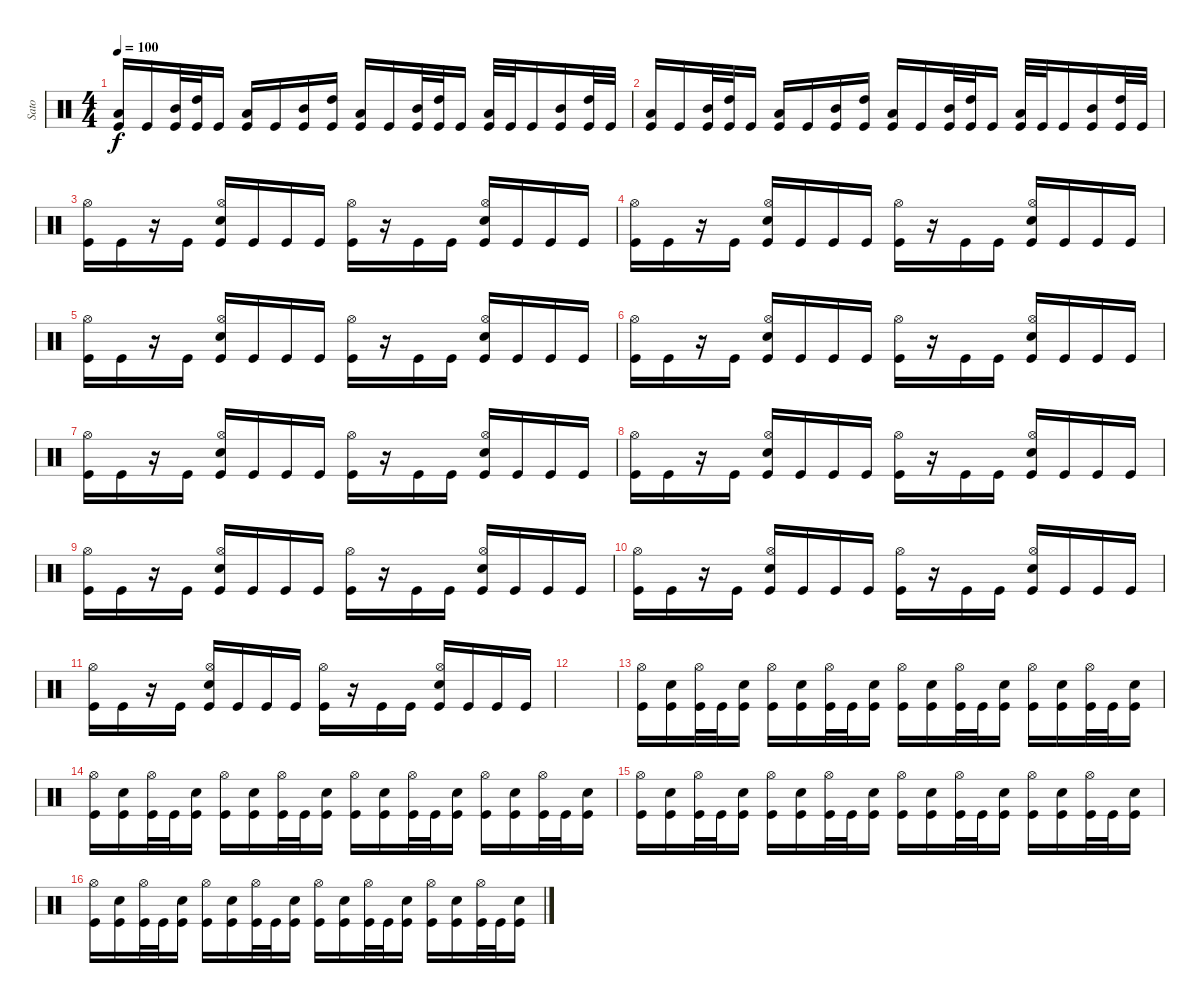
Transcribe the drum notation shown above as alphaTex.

\track ("Sato" "Sato") {instrument percussion}
\staff {score}
\articulation defaults
\ts (4 4)
\tempo 100
\clef neutral
\ks c
("Low Tom (hit)" "Kick (hit)").16{dy f} "Kick (hit)".16 ("Mid Tom (hit)" "Kick (hit)").32 ("High Tom (hit)" "Kick (hit)").32 "Kick (hit)".16 ("Low Tom (hit)" "Kick (hit)").16 "Kick (hit)".16 ("Mid Tom (hit)" "Kick (hit)").16 ("High Tom (hit)" "Kick (hit)").16 ("Low Tom (hit)" "Kick (hit)").16 "Kick (hit)".16 ("Mid Tom (hit)" "Kick (hit)").32 ("High Tom (hit)" "Kick (hit)").32 "Kick (hit)".16 ("Low Tom (hit)" "Kick (hit)").32 "Kick (hit)".32 "Kick (hit)".16 ("Mid Tom (hit)" "Kick (hit)").16 ("High Tom (hit)" "Kick (hit)").32 "Kick (hit)".32 |
("Low Tom (hit)" "Kick (hit)").16 "Kick (hit)".16 ("Mid Tom (hit)" "Kick (hit)").32 ("High Tom (hit)" "Kick (hit)").32 "Kick (hit)".16 ("Low Tom (hit)" "Kick (hit)").16 "Kick (hit)".16 ("Mid Tom (hit)" "Kick (hit)").16 ("High Tom (hit)" "Kick (hit)").16 ("Low Tom (hit)" "Kick (hit)").16 "Kick (hit)".16 ("Mid Tom (hit)" "Kick (hit)").32 ("High Tom (hit)" "Kick (hit)").32 "Kick (hit)".16 ("Low Tom (hit)" "Kick (hit)").32 "Kick (hit)".32 "Kick (hit)".16 ("Mid Tom (hit)" "Kick (hit)").16 ("High Tom (hit)" "Kick (hit)").32 "Kick (hit)".32 |
("Hi-Hat (open)" "Kick (hit)").16 "Kick (hit)".16 r.16 "Kick (hit)".16 ("Hi-Hat (open)" "Electric Snare (hit)" "Kick (hit)").16 "Kick (hit)".16 "Kick (hit)".16 "Kick (hit)".16 ("Hi-Hat (open)" "Kick (hit)").16 r.16 "Kick (hit)".16 "Kick (hit)".16 ("Hi-Hat (open)" "Electric Snare (hit)" "Kick (hit)").16 "Kick (hit)".16 "Kick (hit)".16 "Kick (hit)".16 |
("Hi-Hat (open)" "Kick (hit)").16 "Kick (hit)".16 r.16 "Kick (hit)".16 ("Hi-Hat (open)" "Electric Snare (hit)" "Kick (hit)").16 "Kick (hit)".16 "Kick (hit)".16 "Kick (hit)".16 ("Hi-Hat (open)" "Kick (hit)").16 r.16 "Kick (hit)".16 "Kick (hit)".16 ("Hi-Hat (open)" "Electric Snare (hit)" "Kick (hit)").16 "Kick (hit)".16 "Kick (hit)".16 "Kick (hit)".16 |
("Hi-Hat (open)" "Kick (hit)").16 "Kick (hit)".16 r.16 "Kick (hit)".16 ("Hi-Hat (open)" "Electric Snare (hit)" "Kick (hit)").16 "Kick (hit)".16 "Kick (hit)".16 "Kick (hit)".16 ("Hi-Hat (open)" "Kick (hit)").16 r.16 "Kick (hit)".16 "Kick (hit)".16 ("Hi-Hat (open)" "Electric Snare (hit)" "Kick (hit)").16 "Kick (hit)".16 "Kick (hit)".16 "Kick (hit)".16 |
("Hi-Hat (open)" "Kick (hit)").16 "Kick (hit)".16 r.16 "Kick (hit)".16 ("Hi-Hat (open)" "Electric Snare (hit)" "Kick (hit)").16 "Kick (hit)".16 "Kick (hit)".16 "Kick (hit)".16 ("Hi-Hat (open)" "Kick (hit)").16 r.16 "Kick (hit)".16 "Kick (hit)".16 ("Hi-Hat (open)" "Electric Snare (hit)" "Kick (hit)").16 "Kick (hit)".16 "Kick (hit)".16 "Kick (hit)".16 |
("Hi-Hat (open)" "Kick (hit)").16 "Kick (hit)".16 r.16 "Kick (hit)".16 ("Hi-Hat (open)" "Electric Snare (hit)" "Kick (hit)").16 "Kick (hit)".16 "Kick (hit)".16 "Kick (hit)".16 ("Hi-Hat (open)" "Kick (hit)").16 r.16 "Kick (hit)".16 "Kick (hit)".16 ("Hi-Hat (open)" "Electric Snare (hit)" "Kick (hit)").16 "Kick (hit)".16 "Kick (hit)".16 "Kick (hit)".16 |
("Hi-Hat (open)" "Kick (hit)").16 "Kick (hit)".16 r.16 "Kick (hit)".16 ("Hi-Hat (open)" "Electric Snare (hit)" "Kick (hit)").16 "Kick (hit)".16 "Kick (hit)".16 "Kick (hit)".16 ("Hi-Hat (open)" "Kick (hit)").16 r.16 "Kick (hit)".16 "Kick (hit)".16 ("Hi-Hat (open)" "Electric Snare (hit)" "Kick (hit)").16 "Kick (hit)".16 "Kick (hit)".16 "Kick (hit)".16 |
("Hi-Hat (open)" "Kick (hit)").16 "Kick (hit)".16 r.16 "Kick (hit)".16 ("Hi-Hat (open)" "Electric Snare (hit)" "Kick (hit)").16 "Kick (hit)".16 "Kick (hit)".16 "Kick (hit)".16 ("Hi-Hat (open)" "Kick (hit)").16 r.16 "Kick (hit)".16 "Kick (hit)".16 ("Hi-Hat (open)" "Electric Snare (hit)" "Kick (hit)").16 "Kick (hit)".16 "Kick (hit)".16 "Kick (hit)".16 |
("Hi-Hat (open)" "Kick (hit)").16 "Kick (hit)".16 r.16 "Kick (hit)".16 ("Hi-Hat (open)" "Electric Snare (hit)" "Kick (hit)").16 "Kick (hit)".16 "Kick (hit)".16 "Kick (hit)".16 ("Hi-Hat (open)" "Kick (hit)").16 r.16 "Kick (hit)".16 "Kick (hit)".16 ("Hi-Hat (open)" "Electric Snare (hit)" "Kick (hit)").16 "Kick (hit)".16 "Kick (hit)".16 "Kick (hit)".16 |
("Hi-Hat (open)" "Kick (hit)").16 "Kick (hit)".16 r.16 "Kick (hit)".16 ("Hi-Hat (open)" "Electric Snare (hit)" "Kick (hit)").16 "Kick (hit)".16 "Kick (hit)".16 "Kick (hit)".16 ("Hi-Hat (open)" "Kick (hit)").16 r.16 "Kick (hit)".16 "Kick (hit)".16 ("Hi-Hat (open)" "Electric Snare (hit)" "Kick (hit)").16 "Kick (hit)".16 "Kick (hit)".16 "Kick (hit)".16 |
|
("Hi-Hat (open)" "Kick (hit)").16 ("Electric Snare (hit)" "Kick (hit)").16 ("Hi-Hat (open)" "Kick (hit)").32 "Kick (hit)".32 ("Electric Snare (hit)" "Kick (hit)").16 ("Hi-Hat (open)" "Kick (hit)").16 ("Electric Snare (hit)" "Kick (hit)").16 ("Hi-Hat (open)" "Kick (hit)").32 "Kick (hit)".32 ("Electric Snare (hit)" "Kick (hit)").16 ("Hi-Hat (open)" "Kick (hit)").16 ("Electric Snare (hit)" "Kick (hit)").16 ("Hi-Hat (open)" "Kick (hit)").32 "Kick (hit)".32 ("Electric Snare (hit)" "Kick (hit)").16 ("Hi-Hat (open)" "Kick (hit)").16 ("Electric Snare (hit)" "Kick (hit)").16 ("Hi-Hat (open)" "Kick (hit)").32 "Kick (hit)".32 ("Electric Snare (hit)" "Kick (hit)").16 |
("Hi-Hat (open)" "Kick (hit)").16 ("Electric Snare (hit)" "Kick (hit)").16 ("Hi-Hat (open)" "Kick (hit)").32 "Kick (hit)".32 ("Electric Snare (hit)" "Kick (hit)").16 ("Hi-Hat (open)" "Kick (hit)").16 ("Electric Snare (hit)" "Kick (hit)").16 ("Hi-Hat (open)" "Kick (hit)").32 "Kick (hit)".32 ("Electric Snare (hit)" "Kick (hit)").16 ("Hi-Hat (open)" "Kick (hit)").16 ("Electric Snare (hit)" "Kick (hit)").16 ("Hi-Hat (open)" "Kick (hit)").32 "Kick (hit)".32 ("Electric Snare (hit)" "Kick (hit)").16 ("Hi-Hat (open)" "Kick (hit)").16 ("Electric Snare (hit)" "Kick (hit)").16 ("Hi-Hat (open)" "Kick (hit)").32 "Kick (hit)".32 ("Electric Snare (hit)" "Kick (hit)").16 |
("Hi-Hat (open)" "Kick (hit)").16 ("Electric Snare (hit)" "Kick (hit)").16 ("Hi-Hat (open)" "Kick (hit)").32 "Kick (hit)".32 ("Electric Snare (hit)" "Kick (hit)").16 ("Hi-Hat (open)" "Kick (hit)").16 ("Electric Snare (hit)" "Kick (hit)").16 ("Hi-Hat (open)" "Kick (hit)").32 "Kick (hit)".32 ("Electric Snare (hit)" "Kick (hit)").16 ("Hi-Hat (open)" "Kick (hit)").16 ("Electric Snare (hit)" "Kick (hit)").16 ("Hi-Hat (open)" "Kick (hit)").32 "Kick (hit)".32 ("Electric Snare (hit)" "Kick (hit)").16 ("Hi-Hat (open)" "Kick (hit)").16 ("Electric Snare (hit)" "Kick (hit)").16 ("Hi-Hat (open)" "Kick (hit)").32 "Kick (hit)".32 ("Electric Snare (hit)" "Kick (hit)").16 |
("Hi-Hat (open)" "Kick (hit)").16 ("Electric Snare (hit)" "Kick (hit)").16 ("Hi-Hat (open)" "Kick (hit)").32 "Kick (hit)".32 ("Electric Snare (hit)" "Kick (hit)").16 ("Hi-Hat (open)" "Kick (hit)").16 ("Electric Snare (hit)" "Kick (hit)").16 ("Hi-Hat (open)" "Kick (hit)").32 "Kick (hit)".32 ("Electric Snare (hit)" "Kick (hit)").16 ("Hi-Hat (open)" "Kick (hit)").16 ("Electric Snare (hit)" "Kick (hit)").16 ("Hi-Hat (open)" "Kick (hit)").32 "Kick (hit)".32 ("Electric Snare (hit)" "Kick (hit)").16 ("Hi-Hat (open)" "Kick (hit)").16 ("Electric Snare (hit)" "Kick (hit)").16 ("Hi-Hat (open)" "Kick (hit)").32 "Kick (hit)".32 ("Electric Snare (hit)" "Kick (hit)").16
